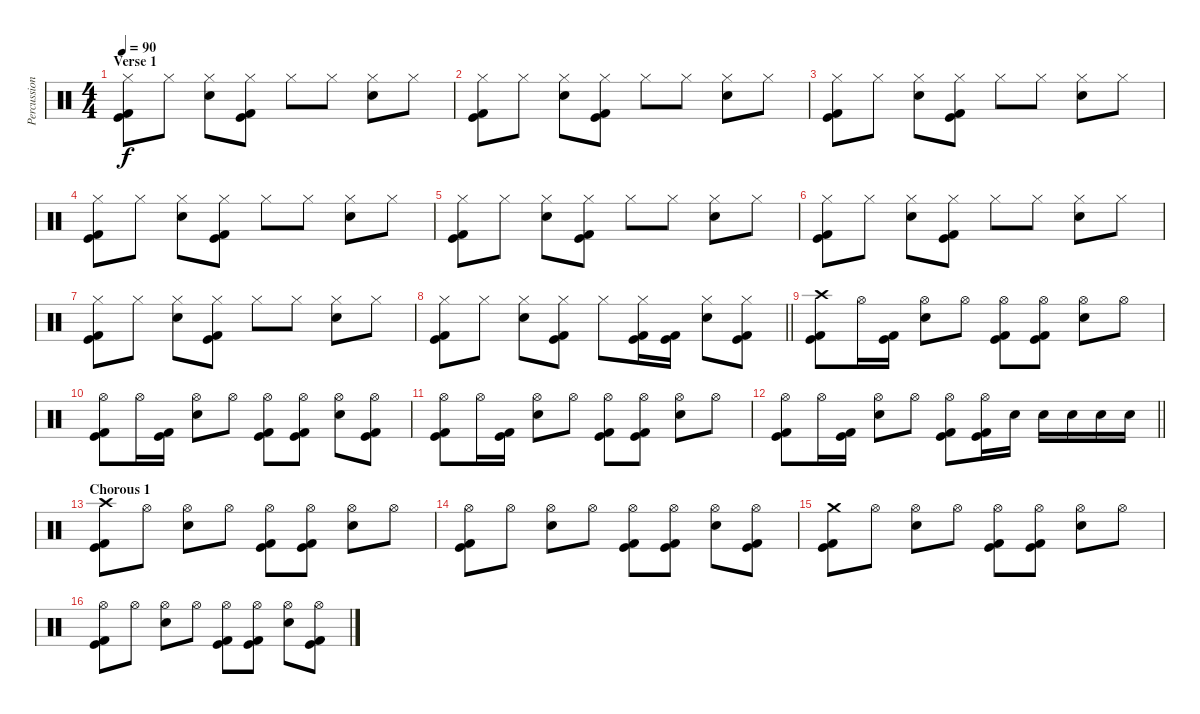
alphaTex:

\track ("Percussion" "Percussion") {instrument percussion}
\staff {score}
\articulation defaults
\ts (4 4)
\section ("" "Verse 1")
\tempo 90
\clef neutral
\ks c
("Hi-Hat (closed)" "Kick (hit)" "Kick (hit) 2").8{dy f} "Hi-Hat (closed)".8 ("Hi-Hat (closed)" "Electric Snare (hit)").8 ("Hi-Hat (closed)" "Kick (hit)" "Kick (hit) 2").8 "Hi-Hat (closed)".8 "Hi-Hat (closed)".8 ("Hi-Hat (closed)" "Electric Snare (hit)").8 "Hi-Hat (closed)".8 |
("Hi-Hat (closed)" "Kick (hit)" "Kick (hit) 2").8 "Hi-Hat (closed)".8 ("Hi-Hat (closed)" "Electric Snare (hit)").8 ("Hi-Hat (closed)" "Kick (hit)" "Kick (hit) 2").8 "Hi-Hat (closed)".8 "Hi-Hat (closed)".8 ("Hi-Hat (closed)" "Electric Snare (hit)").8 "Hi-Hat (closed)".8 |
("Hi-Hat (closed)" "Kick (hit)" "Kick (hit) 2").8 "Hi-Hat (closed)".8 ("Hi-Hat (closed)" "Electric Snare (hit)").8 ("Hi-Hat (closed)" "Kick (hit)" "Kick (hit) 2").8 "Hi-Hat (closed)".8 "Hi-Hat (closed)".8 ("Hi-Hat (closed)" "Electric Snare (hit)").8 "Hi-Hat (closed)".8 |
("Hi-Hat (closed)" "Kick (hit)" "Kick (hit) 2").8 "Hi-Hat (closed)".8 ("Hi-Hat (closed)" "Electric Snare (hit)").8 ("Hi-Hat (closed)" "Kick (hit)" "Kick (hit) 2").8 "Hi-Hat (closed)".8 "Hi-Hat (closed)".8 ("Hi-Hat (closed)" "Electric Snare (hit)").8 "Hi-Hat (closed)".8 |
("Hi-Hat (closed)" "Kick (hit)" "Kick (hit) 2").8 "Hi-Hat (closed)".8 ("Hi-Hat (closed)" "Electric Snare (hit)").8 ("Hi-Hat (closed)" "Kick (hit)" "Kick (hit) 2").8 "Hi-Hat (closed)".8 "Hi-Hat (closed)".8 ("Hi-Hat (closed)" "Electric Snare (hit)").8 "Hi-Hat (closed)".8 |
("Hi-Hat (closed)" "Kick (hit)" "Kick (hit) 2").8 "Hi-Hat (closed)".8 ("Hi-Hat (closed)" "Electric Snare (hit)").8 ("Hi-Hat (closed)" "Kick (hit)" "Kick (hit) 2").8 "Hi-Hat (closed)".8 "Hi-Hat (closed)".8 ("Hi-Hat (closed)" "Electric Snare (hit)").8 "Hi-Hat (closed)".8 |
("Hi-Hat (closed)" "Kick (hit)" "Kick (hit) 2").8 "Hi-Hat (closed)".8 ("Hi-Hat (closed)" "Electric Snare (hit)").8 ("Hi-Hat (closed)" "Kick (hit)" "Kick (hit) 2").8 "Hi-Hat (closed)".8 "Hi-Hat (closed)".8 ("Hi-Hat (closed)" "Electric Snare (hit)").8 "Hi-Hat (closed)".8 |
\barLineRight lightlight
("Hi-Hat (closed)" "Kick (hit)" "Kick (hit) 2").8 "Hi-Hat (closed)".8 ("Hi-Hat (closed)" "Electric Snare (hit)").8 ("Hi-Hat (closed)" "Kick (hit)" "Kick (hit) 2").8 "Hi-Hat (closed)".8 ("Hi-Hat (closed)" "Kick (hit)" "Kick (hit) 2").16 ("Kick (hit)" "Kick (hit) 2").16 ("Hi-Hat (closed)" "Electric Snare (hit)").8 ("Hi-Hat (closed)" "Kick (hit)" "Kick (hit) 2").8 |
\section ("" "")
("Crash high (hit)" "Kick (hit)" "Kick (hit) 2").8 "Hi-Hat (open)".16 ("Kick (hit)" "Kick (hit) 2").16 ("Hi-Hat (open)" "Electric Snare (hit)").8 "Hi-Hat (open)".8 ("Hi-Hat (open)" "Kick (hit)" "Kick (hit) 2").8 ("Hi-Hat (open)" "Kick (hit)" "Kick (hit) 2").8 ("Hi-Hat (open)" "Electric Snare (hit)").8 "Hi-Hat (open)".8 |
("Hi-Hat (open)" "Kick (hit)" "Kick (hit) 2").8 "Hi-Hat (open)".16 ("Kick (hit)" "Kick (hit) 2").16 ("Hi-Hat (open)" "Electric Snare (hit)").8 "Hi-Hat (open)".8 ("Hi-Hat (open)" "Kick (hit)" "Kick (hit) 2").8 ("Hi-Hat (open)" "Kick (hit)" "Kick (hit) 2").8 ("Hi-Hat (open)" "Electric Snare (hit)").8 ("Hi-Hat (open)" "Kick (hit)" "Kick (hit) 2").8 |
("Hi-Hat (open)" "Kick (hit)" "Kick (hit) 2").8 "Hi-Hat (open)".16 ("Kick (hit)" "Kick (hit) 2").16 ("Hi-Hat (open)" "Electric Snare (hit)").8 "Hi-Hat (open)".8 ("Hi-Hat (open)" "Kick (hit)" "Kick (hit) 2").8 ("Hi-Hat (open)" "Kick (hit)" "Kick (hit) 2").8 ("Hi-Hat (open)" "Electric Snare (hit)").8 "Hi-Hat (open)".8 |
\barLineRight lightlight
("Hi-Hat (open)" "Kick (hit)" "Kick (hit) 2").8 "Hi-Hat (open)".16 ("Kick (hit)" "Kick (hit) 2").16 ("Hi-Hat (open)" "Electric Snare (hit)").8 "Hi-Hat (open)".8 ("Hi-Hat (open)" "Kick (hit)" "Kick (hit) 2").8 ("Hi-Hat (open)" "Kick (hit)" "Kick (hit) 2").16 "Electric Snare (hit)".16 "Electric Snare (hit)".16 "Electric Snare (hit)".16 "Electric Snare (hit)".16 "Electric Snare (hit)".16 |
\section ("" "Chorous 1")
("Crash high (hit)" "Kick (hit)" "Kick (hit) 2").8 "Hi-Hat (open)".8 ("Hi-Hat (open)" "Electric Snare (hit)").8 "Hi-Hat (open)".8 ("Hi-Hat (open)" "Kick (hit)" "Kick (hit) 2").8 ("Hi-Hat (open)" "Kick (hit)" "Kick (hit) 2").8 ("Hi-Hat (open)" "Electric Snare (hit)").8 "Hi-Hat (open)".8 |
("Hi-Hat (open)" "Kick (hit)" "Kick (hit) 2").8 "Hi-Hat (open)".8 ("Hi-Hat (open)" "Electric Snare (hit)").8 "Hi-Hat (open)".8 ("Hi-Hat (open)" "Kick (hit)" "Kick (hit) 2").8 ("Hi-Hat (open)" "Kick (hit)" "Kick (hit) 2").8 ("Hi-Hat (open)" "Electric Snare (hit)").8 ("Hi-Hat (open)" "Kick (hit)" "Kick (hit) 2").8 |
("Crash medium (hit)" "Kick (hit)" "Kick (hit) 2").8 "Hi-Hat (open)".8 ("Hi-Hat (open)" "Electric Snare (hit)").8 "Hi-Hat (open)".8 ("Hi-Hat (open)" "Kick (hit)" "Kick (hit) 2").8 ("Hi-Hat (open)" "Kick (hit)" "Kick (hit) 2").8 ("Hi-Hat (open)" "Electric Snare (hit)").8 "Hi-Hat (open)".8 |
("Hi-Hat (open)" "Kick (hit)" "Kick (hit) 2").8 "Hi-Hat (open)".8 ("Hi-Hat (open)" "Electric Snare (hit)").8 "Hi-Hat (open)".8 ("Hi-Hat (open)" "Kick (hit)" "Kick (hit) 2").8 ("Hi-Hat (open)" "Kick (hit)" "Kick (hit) 2").8 ("Hi-Hat (open)" "Electric Snare (hit)").8 ("Hi-Hat (open)" "Kick (hit)" "Kick (hit) 2").8
